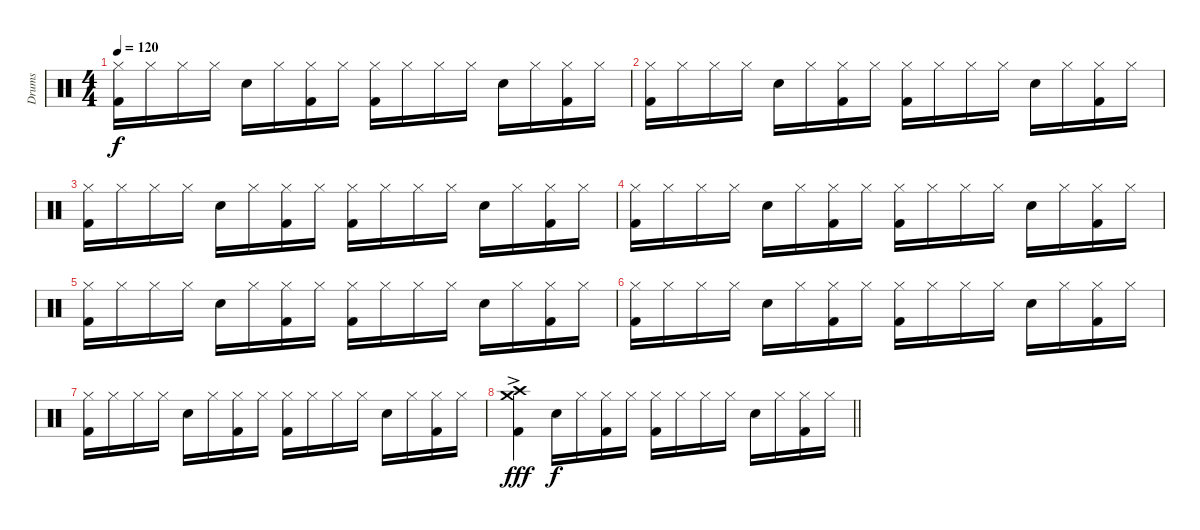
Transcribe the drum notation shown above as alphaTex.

\track ("Drums" "Drums") {instrument percussion}
\staff {score}
\articulation defaults
\ts (4 4)
\tempo 120
\clef neutral
\ks c
("Hi-Hat (closed)" "Kick (hit) 2").16{dy f} "Hi-Hat (closed)".16 "Hi-Hat (closed)".16 "Hi-Hat (closed)".16 "Snare (hit) 2".16 "Hi-Hat (closed)".16 ("Hi-Hat (closed)" "Kick (hit) 2").16 "Hi-Hat (closed)".16 ("Hi-Hat (closed)" "Kick (hit) 2").16 "Hi-Hat (closed)".16 "Hi-Hat (closed)".16 "Hi-Hat (closed)".16 "Snare (hit) 2".16 "Hi-Hat (closed)".16 ("Hi-Hat (closed)" "Kick (hit) 2").16 "Hi-Hat (closed)".16 |
("Hi-Hat (closed)" "Kick (hit) 2").16 "Hi-Hat (closed)".16 "Hi-Hat (closed)".16 "Hi-Hat (closed)".16 "Snare (hit) 2".16 "Hi-Hat (closed)".16 ("Hi-Hat (closed)" "Kick (hit) 2").16 "Hi-Hat (closed)".16 ("Hi-Hat (closed)" "Kick (hit) 2").16 "Hi-Hat (closed)".16 "Hi-Hat (closed)".16 "Hi-Hat (closed)".16 "Snare (hit) 2".16 "Hi-Hat (closed)".16 ("Hi-Hat (closed)" "Kick (hit) 2").16 "Hi-Hat (closed)".16 |
("Hi-Hat (closed)" "Kick (hit) 2").16 "Hi-Hat (closed)".16 "Hi-Hat (closed)".16 "Hi-Hat (closed)".16 "Snare (hit) 2".16 "Hi-Hat (closed)".16 ("Hi-Hat (closed)" "Kick (hit) 2").16 "Hi-Hat (closed)".16 ("Hi-Hat (closed)" "Kick (hit) 2").16 "Hi-Hat (closed)".16 "Hi-Hat (closed)".16 "Hi-Hat (closed)".16 "Snare (hit) 2".16 "Hi-Hat (closed)".16 ("Hi-Hat (closed)" "Kick (hit) 2").16 "Hi-Hat (closed)".16 |
("Hi-Hat (closed)" "Kick (hit) 2").16 "Hi-Hat (closed)".16 "Hi-Hat (closed)".16 "Hi-Hat (closed)".16 "Snare (hit) 2".16 "Hi-Hat (closed)".16 ("Hi-Hat (closed)" "Kick (hit) 2").16 "Hi-Hat (closed)".16 ("Hi-Hat (closed)" "Kick (hit) 2").16 "Hi-Hat (closed)".16 "Hi-Hat (closed)".16 "Hi-Hat (closed)".16 "Snare (hit) 2".16 "Hi-Hat (closed)".16 ("Hi-Hat (closed)" "Kick (hit) 2").16 "Hi-Hat (closed)".16 |
("Hi-Hat (closed)" "Kick (hit) 2").16 "Hi-Hat (closed)".16 "Hi-Hat (closed)".16 "Hi-Hat (closed)".16 "Snare (hit) 2".16 "Hi-Hat (closed)".16 ("Hi-Hat (closed)" "Kick (hit) 2").16 "Hi-Hat (closed)".16 ("Hi-Hat (closed)" "Kick (hit) 2").16 "Hi-Hat (closed)".16 "Hi-Hat (closed)".16 "Hi-Hat (closed)".16 "Snare (hit) 2".16 "Hi-Hat (closed)".16 ("Hi-Hat (closed)" "Kick (hit) 2").16 "Hi-Hat (closed)".16 |
("Hi-Hat (closed)" "Kick (hit) 2").16 "Hi-Hat (closed)".16 "Hi-Hat (closed)".16 "Hi-Hat (closed)".16 "Snare (hit) 2".16 "Hi-Hat (closed)".16 ("Hi-Hat (closed)" "Kick (hit) 2").16 "Hi-Hat (closed)".16 ("Hi-Hat (closed)" "Kick (hit) 2").16 "Hi-Hat (closed)".16 "Hi-Hat (closed)".16 "Hi-Hat (closed)".16 "Snare (hit) 2".16 "Hi-Hat (closed)".16 ("Hi-Hat (closed)" "Kick (hit) 2").16 "Hi-Hat (closed)".16 |
("Hi-Hat (closed)" "Kick (hit) 2").16 "Hi-Hat (closed)".16 "Hi-Hat (closed)".16 "Hi-Hat (closed)".16 "Snare (hit) 2".16 "Hi-Hat (closed)".16 ("Hi-Hat (closed)" "Kick (hit) 2").16 "Hi-Hat (closed)".16 ("Hi-Hat (closed)" "Kick (hit) 2").16 "Hi-Hat (closed)".16 "Hi-Hat (closed)".16 "Hi-Hat (closed)".16 "Snare (hit) 2".16 "Hi-Hat (closed)".16 ("Hi-Hat (closed)" "Kick (hit) 2").16 "Hi-Hat (closed)".16 |
\barLineRight lightlight
("Crash medium (hit)"{ac} "Crash high (hit)"{ac} "Kick (hit) 2"{ac}).4{dy fff} "Snare (hit) 2".16{dy f} "Hi-Hat (closed)".16 ("Hi-Hat (closed)" "Kick (hit) 2").16 "Hi-Hat (closed)".16 ("Hi-Hat (closed)" "Kick (hit) 2").16 "Hi-Hat (closed)".16 "Hi-Hat (closed)".16 "Hi-Hat (closed)".16 "Snare (hit) 2".16 "Hi-Hat (closed)".16 ("Hi-Hat (closed)" "Kick (hit) 2").16 "Hi-Hat (closed)".16
